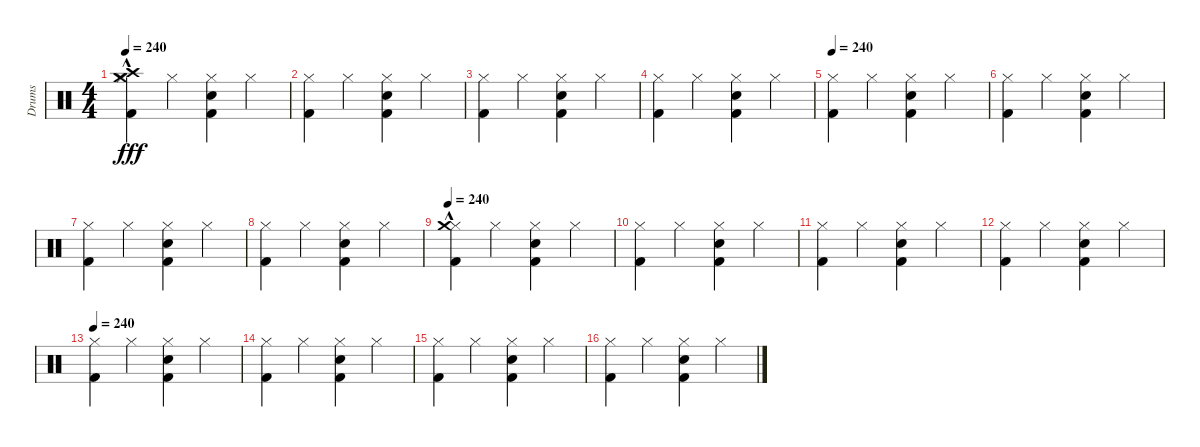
\track ("Drums" "Drums") {instrument percussion}
\staff {score}
\articulation defaults
\ts (4 4)
\tempo 240
\clef neutral
\ks c
("Crash medium (hit)"{hac} "Hi-Hat (closed)" "Kick (hit) 2" "Crash high (hit)").4{dy fff} "Hi-Hat (closed)".4 ("Hi-Hat (closed)" "Kick (hit) 2" "Snare (hit) 2").4 "Hi-Hat (closed)".4 |
("Hi-Hat (closed)" "Kick (hit) 2").4 "Hi-Hat (closed)".4 ("Hi-Hat (closed)" "Kick (hit) 2" "Snare (hit) 2").4 "Hi-Hat (closed)".4 |
("Hi-Hat (closed)" "Kick (hit) 2").4 "Hi-Hat (closed)".4 ("Hi-Hat (closed)" "Snare (hit) 2" "Kick (hit) 2").4 "Hi-Hat (closed)".4 |
("Hi-Hat (closed)" "Kick (hit) 2").4 "Hi-Hat (closed)".4 ("Hi-Hat (closed)" "Kick (hit) 2" "Snare (hit) 2").4 "Hi-Hat (closed)".4 |
\tempo 240
("Hi-Hat (closed)" "Kick (hit) 2").4 "Hi-Hat (closed)".4 ("Hi-Hat (closed)" "Kick (hit) 2" "Snare (hit) 2").4 "Hi-Hat (closed)".4 |
("Hi-Hat (closed)" "Kick (hit) 2").4 "Hi-Hat (closed)".4 ("Hi-Hat (closed)" "Snare (hit) 2" "Kick (hit) 2").4 "Hi-Hat (closed)".4 |
("Hi-Hat (closed)" "Kick (hit) 2").4 "Hi-Hat (closed)".4 ("Hi-Hat (closed)" "Kick (hit) 2" "Snare (hit) 2").4 "Hi-Hat (closed)".4 |
("Hi-Hat (closed)" "Kick (hit) 2").4 "Hi-Hat (closed)".4 ("Hi-Hat (closed)" "Kick (hit) 2" "Snare (hit) 2").4 "Hi-Hat (closed)".4 |
\tempo 240
("Kick (hit) 2" "Hi-Hat (closed)" "Crash medium (hit)"{hac}).4 "Hi-Hat (closed)".4 ("Kick (hit) 2" "Snare (hit) 2" "Hi-Hat (closed)").4 "Hi-Hat (closed)".4 |
("Kick (hit) 2" "Hi-Hat (closed)").4 "Hi-Hat (closed)".4 ("Kick (hit) 2" "Snare (hit) 2" "Hi-Hat (closed)").4 "Hi-Hat (closed)".4 |
("Kick (hit) 2" "Hi-Hat (closed)").4 "Hi-Hat (closed)".4 ("Snare (hit) 2" "Kick (hit) 2" "Hi-Hat (closed)").4 "Hi-Hat (closed)".4 |
("Kick (hit) 2" "Hi-Hat (closed)").4 "Hi-Hat (closed)".4 ("Kick (hit) 2" "Snare (hit) 2" "Hi-Hat (closed)").4 "Hi-Hat (closed)".4 |
\tempo 240
("Kick (hit) 2" "Hi-Hat (closed)").4 "Hi-Hat (closed)".4 ("Kick (hit) 2" "Snare (hit) 2" "Hi-Hat (closed)").4 "Hi-Hat (closed)".4 |
("Kick (hit) 2" "Hi-Hat (closed)").4 "Hi-Hat (closed)".4 ("Snare (hit) 2" "Kick (hit) 2" "Hi-Hat (closed)").4 "Hi-Hat (closed)".4 |
("Kick (hit) 2" "Hi-Hat (closed)").4 "Hi-Hat (closed)".4 ("Kick (hit) 2" "Snare (hit) 2" "Hi-Hat (closed)").4 "Hi-Hat (closed)".4 |
("Kick (hit) 2" "Hi-Hat (closed)").4 "Hi-Hat (closed)".4 ("Kick (hit) 2" "Snare (hit) 2" "Hi-Hat (closed)").4 "Hi-Hat (closed)".4
